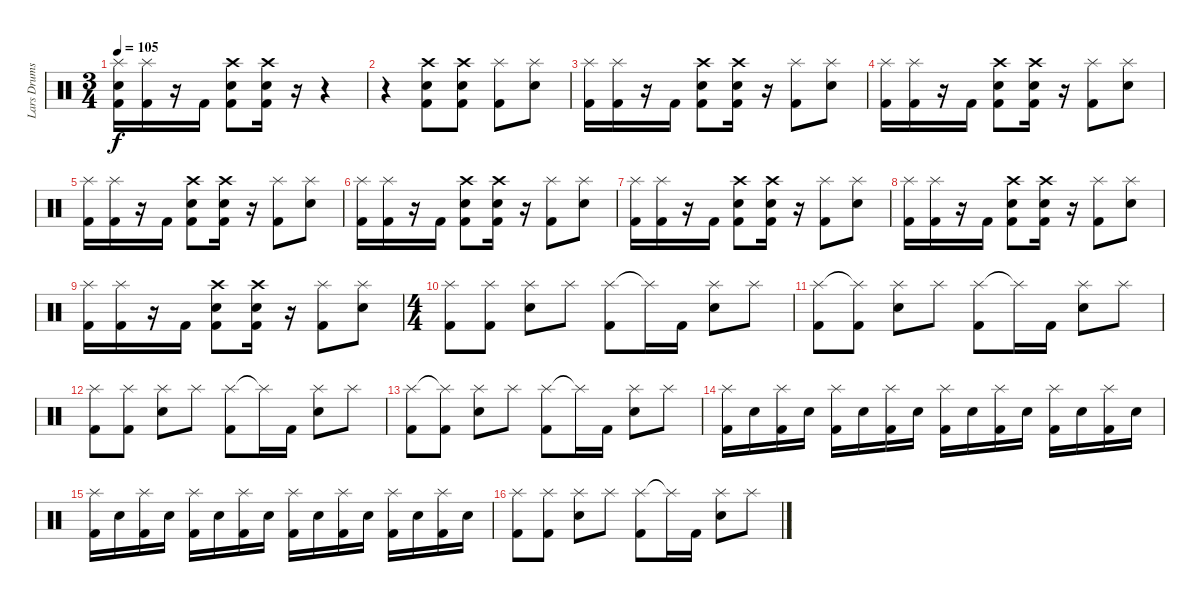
\track ("Lars Drums" "Lars Drums") {instrument percussion}
\staff {score}
\articulation defaults
\ts (3 4)
\tempo 105
\clef neutral
\ks c
("Splash (hit)" "Snare (hit) 2" "Kick (hit) 2").16{dy f} ("Splash (hit)" "Kick (hit) 2").16 r.16 "Kick (hit) 2".16 ("Crash high (hit)" "Snare (hit) 2" "Kick (hit) 2").8 ("Crash high (hit)" "Snare (hit) 2" "Kick (hit) 2").16 r.16 r.4 |
r.4 ("Crash high (hit)" "Snare (hit) 2" "Kick (hit) 2").8 ("Crash high (hit)" "Snare (hit) 2" "Kick (hit) 2").8 ("Splash (hit)" "Kick (hit) 2").8 ("Splash (hit)" "Snare (hit) 2").8 |
("Splash (hit)" "Kick (hit) 2").16 ("Splash (hit)" "Kick (hit) 2").16 r.16 "Kick (hit) 2".16 ("Crash high (hit)" "Snare (hit) 2" "Kick (hit) 2").8 ("Crash high (hit)" "Snare (hit) 2" "Kick (hit) 2").16 r.16 ("Splash (hit)" "Kick (hit) 2").8 ("Splash (hit)" "Snare (hit) 2").8 |
("Splash (hit)" "Kick (hit) 2").16 ("Splash (hit)" "Kick (hit) 2").16 r.16 "Kick (hit) 2".16 ("Crash high (hit)" "Snare (hit) 2" "Kick (hit) 2").8 ("Crash high (hit)" "Snare (hit) 2" "Kick (hit) 2").16 r.16 ("Splash (hit)" "Kick (hit) 2").8 ("Splash (hit)" "Snare (hit) 2").8 |
("Splash (hit)" "Kick (hit) 2").16 ("Splash (hit)" "Kick (hit) 2").16 r.16 "Kick (hit) 2".16 ("Crash high (hit)" "Snare (hit) 2" "Kick (hit) 2").8 ("Crash high (hit)" "Snare (hit) 2" "Kick (hit) 2").16 r.16 ("Splash (hit)" "Kick (hit) 2").8 ("Splash (hit)" "Snare (hit) 2").8 |
("Splash (hit)" "Kick (hit) 2").16 ("Splash (hit)" "Kick (hit) 2").16 r.16 "Kick (hit) 2".16 ("Crash high (hit)" "Snare (hit) 2" "Kick (hit) 2").8 ("Crash high (hit)" "Snare (hit) 2" "Kick (hit) 2").16 r.16 ("Splash (hit)" "Kick (hit) 2").8 ("Splash (hit)" "Snare (hit) 2").8 |
("Splash (hit)" "Kick (hit) 2").16 ("Splash (hit)" "Kick (hit) 2").16 r.16 "Kick (hit) 2".16 ("Crash high (hit)" "Snare (hit) 2" "Kick (hit) 2").8 ("Crash high (hit)" "Snare (hit) 2" "Kick (hit) 2").16 r.16 ("Splash (hit)" "Kick (hit) 2").8 ("Splash (hit)" "Snare (hit) 2").8 |
("Splash (hit)" "Kick (hit) 2").16 ("Splash (hit)" "Kick (hit) 2").16 r.16 "Kick (hit) 2".16 ("Crash high (hit)" "Snare (hit) 2" "Kick (hit) 2").8 ("Crash high (hit)" "Snare (hit) 2" "Kick (hit) 2").16 r.16 ("Splash (hit)" "Kick (hit) 2").8 ("Splash (hit)" "Snare (hit) 2").8 |
("Splash (hit)" "Kick (hit) 2").16 ("Splash (hit)" "Kick (hit) 2").16 r.16 "Kick (hit) 2".16 ("Crash high (hit)" "Snare (hit) 2" "Kick (hit) 2").8 ("Crash high (hit)" "Snare (hit) 2" "Kick (hit) 2").16 r.16 ("Splash (hit)" "Kick (hit) 2").8 ("Splash (hit)" "Snare (hit) 2").8 |
\ts (4 4)
("Splash (hit)" "Kick (hit) 2").8 ("Splash (hit)" "Kick (hit) 2").8 ("Splash (hit)" "Snare (hit) 2").8 "Splash (hit)".8 ("Splash (hit)" "Kick (hit) 2").8 "Splash (hit)"{t}.16 "Kick (hit) 2".16 ("Splash (hit)" "Snare (hit) 2").8 "Splash (hit)".8 |
("Splash (hit)" "Kick (hit) 2").8 ("Splash (hit)"{t} "Kick (hit) 2").8 ("Splash (hit)" "Snare (hit) 2").8 "Splash (hit)".8 ("Splash (hit)" "Kick (hit) 2").8 "Splash (hit)"{t}.16 "Kick (hit) 2".16 ("Splash (hit)" "Snare (hit) 2").8 "Splash (hit)".8 |
("Splash (hit)" "Kick (hit) 2").8 ("Splash (hit)" "Kick (hit) 2").8 ("Splash (hit)" "Snare (hit) 2").8 "Splash (hit)".8 ("Splash (hit)" "Kick (hit) 2").8 "Splash (hit)"{t}.16 "Kick (hit) 2".16 ("Splash (hit)" "Snare (hit) 2").8 "Splash (hit)".8 |
("Splash (hit)" "Kick (hit) 2").8 ("Splash (hit)"{t} "Kick (hit) 2").8 ("Splash (hit)" "Snare (hit) 2").8 "Splash (hit)".8 ("Splash (hit)" "Kick (hit) 2").8 "Splash (hit)"{t}.16 "Kick (hit) 2".16 ("Splash (hit)" "Snare (hit) 2").8 "Splash (hit)".8 |
("Splash (hit)" "Kick (hit) 2").16 "Snare (hit) 2".16 ("Splash (hit)" "Kick (hit) 2").16 "Snare (hit) 2".16 ("Splash (hit)" "Kick (hit) 2").16 "Snare (hit) 2".16 ("Splash (hit)" "Kick (hit) 2").16 "Snare (hit) 2".16 ("Splash (hit)" "Kick (hit) 2").16 "Snare (hit) 2".16 ("Splash (hit)" "Kick (hit) 2").16 "Snare (hit) 2".16 ("Splash (hit)" "Kick (hit) 2").16 "Snare (hit) 2".16 ("Splash (hit)" "Kick (hit) 2").16 "Snare (hit) 2".16 |
("Splash (hit)" "Kick (hit) 2").16 "Snare (hit) 2".16 ("Splash (hit)" "Kick (hit) 2").16 "Snare (hit) 2".16 ("Splash (hit)" "Kick (hit) 2").16 "Snare (hit) 2".16 ("Splash (hit)" "Kick (hit) 2").16 "Snare (hit) 2".16 ("Splash (hit)" "Kick (hit) 2").16 "Snare (hit) 2".16 ("Splash (hit)" "Kick (hit) 2").16 "Snare (hit) 2".16 ("Splash (hit)" "Kick (hit) 2").16 "Snare (hit) 2".16 ("Splash (hit)" "Kick (hit) 2").16 "Snare (hit) 2".16 |
("Splash (hit)" "Kick (hit) 2").8 ("Splash (hit)" "Kick (hit) 2").8 ("Splash (hit)" "Snare (hit) 2").8 "Splash (hit)".8 ("Splash (hit)" "Kick (hit) 2").8 "Splash (hit)"{t}.16 "Kick (hit) 2".16 ("Splash (hit)" "Snare (hit) 2").8 "Splash (hit)".8
